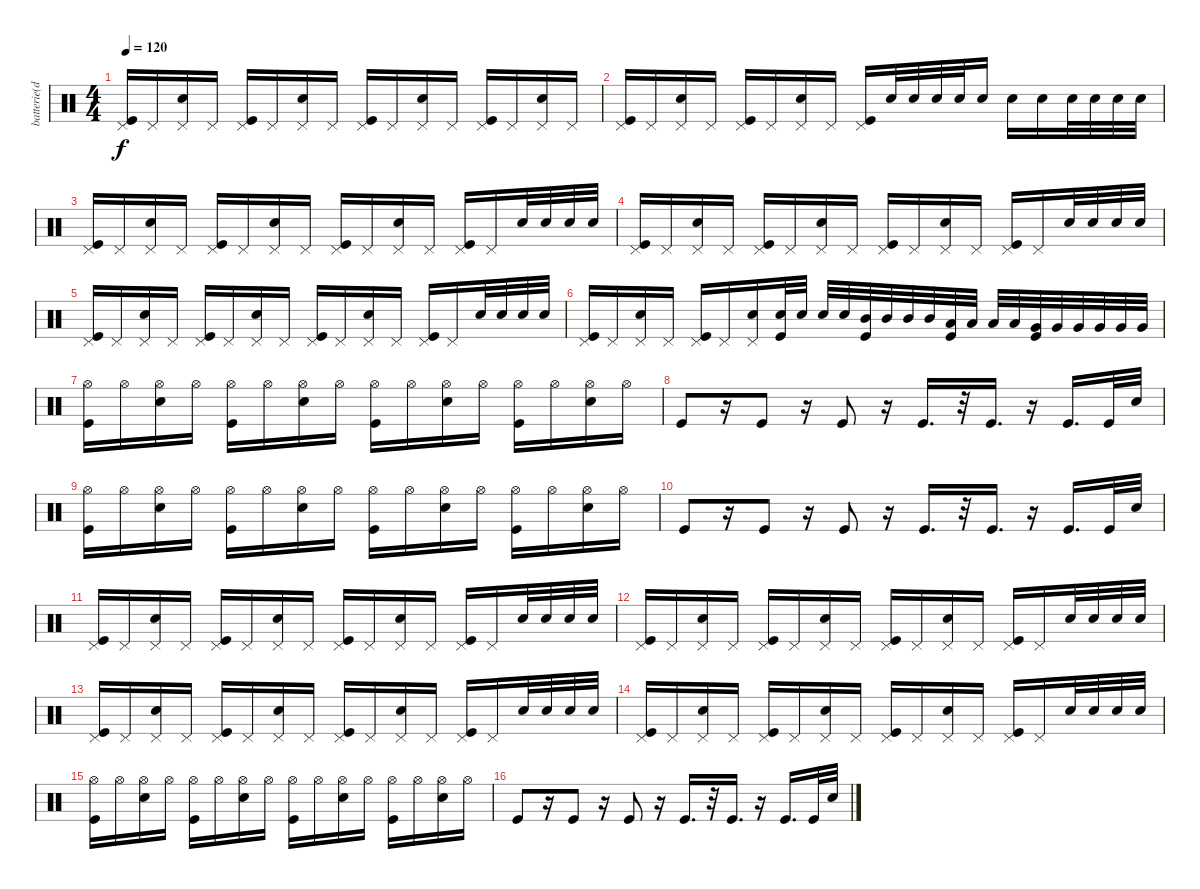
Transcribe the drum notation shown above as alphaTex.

\track ("batterie(dru)" "batterie(d") {instrument percussion}
\staff {score}
\articulation defaults
\ts (4 4)
\tempo 120
\clef neutral
\ks c
("Pedal Hi-Hat (hit)" "Kick (hit)").16{dy f} "Pedal Hi-Hat (hit)".16 ("Pedal Hi-Hat (hit)" "Snare (hit) 2").16 "Pedal Hi-Hat (hit)".16 ("Pedal Hi-Hat (hit)" "Kick (hit)").16 "Pedal Hi-Hat (hit)".16 ("Pedal Hi-Hat (hit)" "Snare (hit) 2").16 "Pedal Hi-Hat (hit)".16 ("Pedal Hi-Hat (hit)" "Kick (hit)").16 "Pedal Hi-Hat (hit)".16 ("Pedal Hi-Hat (hit)" "Snare (hit) 2").16 "Pedal Hi-Hat (hit)".16 ("Pedal Hi-Hat (hit)" "Kick (hit)").16 "Pedal Hi-Hat (hit)".16 ("Pedal Hi-Hat (hit)" "Snare (hit) 2").16 "Pedal Hi-Hat (hit)".16 |
("Pedal Hi-Hat (hit)" "Kick (hit)").16 "Pedal Hi-Hat (hit)".16 ("Pedal Hi-Hat (hit)" "Snare (hit) 2").16 "Pedal Hi-Hat (hit)".16 ("Pedal Hi-Hat (hit)" "Kick (hit)").16 "Pedal Hi-Hat (hit)".16 ("Pedal Hi-Hat (hit)" "Snare (hit) 2").16 "Pedal Hi-Hat (hit)".16 ("Pedal Hi-Hat (hit)" "Kick (hit)").16 "Snare (hit) 2".32 "Snare (hit) 2".32 "Snare (hit) 2".32 "Snare (hit) 2".32 "Snare (hit) 2".16 "Snare (hit) 2".16 "Snare (hit) 2".16 "Snare (hit) 2".32 "Snare (hit) 2".32 "Snare (hit) 2".32 "Snare (hit) 2".32 |
("Pedal Hi-Hat (hit)" "Kick (hit)").16 "Pedal Hi-Hat (hit)".16 ("Pedal Hi-Hat (hit)" "Snare (hit) 2").16 "Pedal Hi-Hat (hit)".16 ("Pedal Hi-Hat (hit)" "Kick (hit)").16 "Pedal Hi-Hat (hit)".16 ("Pedal Hi-Hat (hit)" "Snare (hit) 2").16 "Pedal Hi-Hat (hit)".16 ("Pedal Hi-Hat (hit)" "Kick (hit)").16 "Pedal Hi-Hat (hit)".16 ("Pedal Hi-Hat (hit)" "Snare (hit) 2").16 "Pedal Hi-Hat (hit)".16 ("Pedal Hi-Hat (hit)" "Kick (hit)").16 "Pedal Hi-Hat (hit)".16 "Snare (hit) 2".32 "Snare (hit) 2".32 "Snare (hit) 2".32 "Snare (hit) 2".32 |
("Pedal Hi-Hat (hit)" "Kick (hit)").16 "Pedal Hi-Hat (hit)".16 ("Pedal Hi-Hat (hit)" "Snare (hit) 2").16 "Pedal Hi-Hat (hit)".16 ("Pedal Hi-Hat (hit)" "Kick (hit)").16 "Pedal Hi-Hat (hit)".16 ("Pedal Hi-Hat (hit)" "Snare (hit) 2").16 "Pedal Hi-Hat (hit)".16 ("Pedal Hi-Hat (hit)" "Kick (hit)").16 "Pedal Hi-Hat (hit)".16 ("Pedal Hi-Hat (hit)" "Snare (hit) 2").16 "Pedal Hi-Hat (hit)".16 ("Pedal Hi-Hat (hit)" "Kick (hit)").16 "Pedal Hi-Hat (hit)".16 "Snare (hit) 2".32 "Snare (hit) 2".32 "Snare (hit) 2".32 "Snare (hit) 2".32 |
("Pedal Hi-Hat (hit)" "Kick (hit)").16 "Pedal Hi-Hat (hit)".16 ("Pedal Hi-Hat (hit)" "Snare (hit) 2").16 "Pedal Hi-Hat (hit)".16 ("Pedal Hi-Hat (hit)" "Kick (hit)").16 "Pedal Hi-Hat (hit)".16 ("Pedal Hi-Hat (hit)" "Snare (hit) 2").16 "Pedal Hi-Hat (hit)".16 ("Pedal Hi-Hat (hit)" "Kick (hit)").16 "Pedal Hi-Hat (hit)".16 ("Pedal Hi-Hat (hit)" "Snare (hit) 2").16 "Pedal Hi-Hat (hit)".16 ("Pedal Hi-Hat (hit)" "Kick (hit)").16 "Pedal Hi-Hat (hit)".16 "Snare (hit) 2".32 "Snare (hit) 2".32 "Snare (hit) 2".32 "Snare (hit) 2".32 |
("Pedal Hi-Hat (hit)" "Kick (hit)").16 "Pedal Hi-Hat (hit)".16 ("Pedal Hi-Hat (hit)" "Snare (hit) 2").16 "Pedal Hi-Hat (hit)".16 ("Pedal Hi-Hat (hit)" "Kick (hit)").16 "Pedal Hi-Hat (hit)".16 ("Pedal Hi-Hat (hit)" "Snare (hit) 2").16 ("Electric Snare (hit)" "Kick (hit)").32 "Electric Snare (hit)".32 "Electric Snare (hit)".32 "Electric Snare (hit)".32 ("Mid Tom (hit)" "Kick (hit)").32 "Mid Tom (hit)".32 "Mid Tom (hit)".32 "Mid Tom (hit)".32 ("Low Tom (hit)" "Kick (hit)").32 "Low Tom (hit)".32 "Low Tom (hit)".32 "Low Tom (hit)".32 ("Very Low Tom (hit)" "Kick (hit)").32 "Very Low Tom (hit)".32 "Very Low Tom (hit)".32 "Very Low Tom (hit)".32 "Very Low Tom (hit)".32 "Very Low Tom (hit)".32 |
("Hi-Hat (open)" "Kick (hit)").16 "Hi-Hat (open)".16 ("Hi-Hat (open)" "Snare (hit) 2").16 "Hi-Hat (open)".16 ("Hi-Hat (open)" "Kick (hit)").16 "Hi-Hat (open)".16 ("Hi-Hat (open)" "Snare (hit) 2").16 "Hi-Hat (open)".16 ("Hi-Hat (open)" "Kick (hit)").16 "Hi-Hat (open)".16 ("Hi-Hat (open)" "Snare (hit) 2").16 "Hi-Hat (open)".16 ("Hi-Hat (open)" "Kick (hit)").16 "Hi-Hat (open)".16 ("Hi-Hat (open)" "Snare (hit) 2").16 "Hi-Hat (open)".16 |
"Kick (hit)".8 r.16 "Kick (hit)".8 r.16 "Kick (hit)".8 r.16 "Kick (hit)".16{d} r.32 "Kick (hit)".16{d} r.16 "Kick (hit)".16{d} "Kick (hit)".32 "Snare (hit) 2".32 |
("Hi-Hat (open)" "Kick (hit)").16 "Hi-Hat (open)".16 ("Hi-Hat (open)" "Snare (hit) 2").16 "Hi-Hat (open)".16 ("Hi-Hat (open)" "Kick (hit)").16 "Hi-Hat (open)".16 ("Hi-Hat (open)" "Snare (hit) 2").16 "Hi-Hat (open)".16 ("Hi-Hat (open)" "Kick (hit)").16 "Hi-Hat (open)".16 ("Hi-Hat (open)" "Snare (hit) 2").16 "Hi-Hat (open)".16 ("Hi-Hat (open)" "Kick (hit)").16 "Hi-Hat (open)".16 ("Hi-Hat (open)" "Snare (hit) 2").16 "Hi-Hat (open)".16 |
"Kick (hit)".8 r.16 "Kick (hit)".8 r.16 "Kick (hit)".8 r.16 "Kick (hit)".16{d} r.32 "Kick (hit)".16{d} r.16 "Kick (hit)".16{d} "Kick (hit)".32 "Snare (hit) 2".32 |
("Pedal Hi-Hat (hit)" "Kick (hit)").16 "Pedal Hi-Hat (hit)".16 ("Pedal Hi-Hat (hit)" "Snare (hit) 2").16 "Pedal Hi-Hat (hit)".16 ("Pedal Hi-Hat (hit)" "Kick (hit)").16 "Pedal Hi-Hat (hit)".16 ("Pedal Hi-Hat (hit)" "Snare (hit) 2").16 "Pedal Hi-Hat (hit)".16 ("Pedal Hi-Hat (hit)" "Kick (hit)").16 "Pedal Hi-Hat (hit)".16 ("Pedal Hi-Hat (hit)" "Snare (hit) 2").16 "Pedal Hi-Hat (hit)".16 ("Pedal Hi-Hat (hit)" "Kick (hit)").16 "Pedal Hi-Hat (hit)".16 "Snare (hit) 2".32 "Snare (hit) 2".32 "Snare (hit) 2".32 "Snare (hit) 2".32 |
("Pedal Hi-Hat (hit)" "Kick (hit)").16 "Pedal Hi-Hat (hit)".16 ("Pedal Hi-Hat (hit)" "Snare (hit) 2").16 "Pedal Hi-Hat (hit)".16 ("Pedal Hi-Hat (hit)" "Kick (hit)").16 "Pedal Hi-Hat (hit)".16 ("Pedal Hi-Hat (hit)" "Snare (hit) 2").16 "Pedal Hi-Hat (hit)".16 ("Pedal Hi-Hat (hit)" "Kick (hit)").16 "Pedal Hi-Hat (hit)".16 ("Pedal Hi-Hat (hit)" "Snare (hit) 2").16 "Pedal Hi-Hat (hit)".16 ("Pedal Hi-Hat (hit)" "Kick (hit)").16 "Pedal Hi-Hat (hit)".16 "Snare (hit) 2".32 "Snare (hit) 2".32 "Snare (hit) 2".32 "Snare (hit) 2".32 |
("Pedal Hi-Hat (hit)" "Kick (hit)").16 "Pedal Hi-Hat (hit)".16 ("Pedal Hi-Hat (hit)" "Snare (hit) 2").16 "Pedal Hi-Hat (hit)".16 ("Pedal Hi-Hat (hit)" "Kick (hit)").16 "Pedal Hi-Hat (hit)".16 ("Pedal Hi-Hat (hit)" "Snare (hit) 2").16 "Pedal Hi-Hat (hit)".16 ("Pedal Hi-Hat (hit)" "Kick (hit)").16 "Pedal Hi-Hat (hit)".16 ("Pedal Hi-Hat (hit)" "Snare (hit) 2").16 "Pedal Hi-Hat (hit)".16 ("Pedal Hi-Hat (hit)" "Kick (hit)").16 "Pedal Hi-Hat (hit)".16 "Snare (hit) 2".32 "Snare (hit) 2".32 "Snare (hit) 2".32 "Snare (hit) 2".32 |
("Pedal Hi-Hat (hit)" "Kick (hit)").16 "Pedal Hi-Hat (hit)".16 ("Pedal Hi-Hat (hit)" "Snare (hit) 2").16 "Pedal Hi-Hat (hit)".16 ("Pedal Hi-Hat (hit)" "Kick (hit)").16 "Pedal Hi-Hat (hit)".16 ("Pedal Hi-Hat (hit)" "Snare (hit) 2").16 "Pedal Hi-Hat (hit)".16 ("Pedal Hi-Hat (hit)" "Kick (hit)").16 "Pedal Hi-Hat (hit)".16 ("Pedal Hi-Hat (hit)" "Snare (hit) 2").16 "Pedal Hi-Hat (hit)".16 ("Pedal Hi-Hat (hit)" "Kick (hit)").16 "Pedal Hi-Hat (hit)".16 "Snare (hit) 2".32 "Snare (hit) 2".32 "Snare (hit) 2".32 "Snare (hit) 2".32 |
("Hi-Hat (open)" "Kick (hit)").16 "Hi-Hat (open)".16 ("Hi-Hat (open)" "Snare (hit) 2").16 "Hi-Hat (open)".16 ("Hi-Hat (open)" "Kick (hit)").16 "Hi-Hat (open)".16 ("Hi-Hat (open)" "Snare (hit) 2").16 "Hi-Hat (open)".16 ("Hi-Hat (open)" "Kick (hit)").16 "Hi-Hat (open)".16 ("Hi-Hat (open)" "Snare (hit) 2").16 "Hi-Hat (open)".16 ("Hi-Hat (open)" "Kick (hit)").16 "Hi-Hat (open)".16 ("Hi-Hat (open)" "Snare (hit) 2").16 "Hi-Hat (open)".16 |
"Kick (hit)".8 r.16 "Kick (hit)".8 r.16 "Kick (hit)".8 r.16 "Kick (hit)".16{d} r.32 "Kick (hit)".16{d} r.16 "Kick (hit)".16{d} "Kick (hit)".32 "Snare (hit) 2".32
